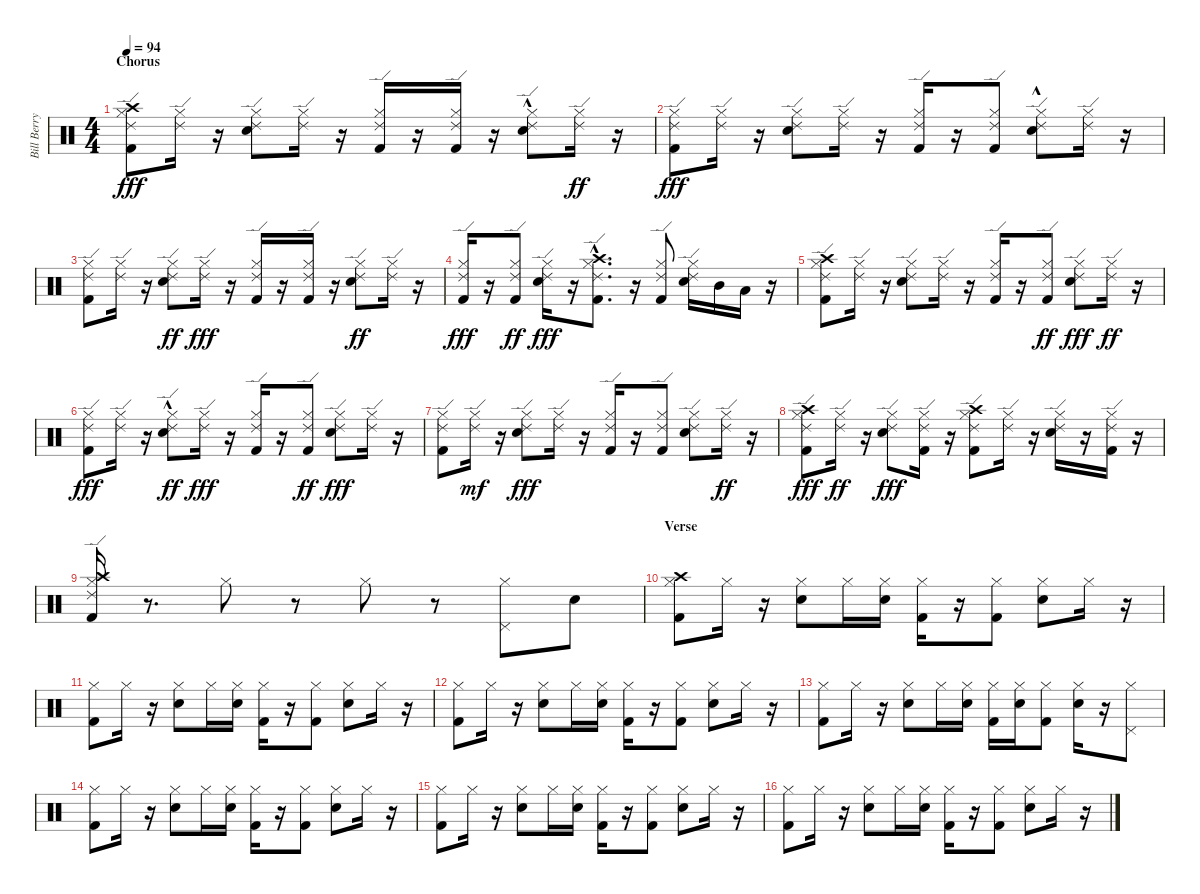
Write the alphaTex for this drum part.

\track ("Bill Berry (Drums)" "Bill Berry") {instrument percussion}
\staff {score}
\articulation defaults
\ts (4 4)
\section ("" "Chorus")
\tempo 94
\clef neutral
\ks c
("Kick (hit) 2" "Crash high (hit)" "Hi-Hat (closed)" "Ride (edge) 2").8{dy fff} ("Hi-Hat (closed)" "Ride (edge) 2").16 r.16 ("Electric Snare (hit)" "Ride (edge) 2" "Hi-Hat (closed)").8 ("Hi-Hat (closed)" "Ride (edge) 2").16 r.16 ("Kick (hit) 2" "Ride (edge) 2" "Hi-Hat (closed)").16 r.16 ("Kick (hit) 2" "Ride (edge) 2" "Hi-Hat (closed)").16 r.16 ("Electric Snare (hit)"{hac} "Ride (edge) 2" "Hi-Hat (closed)").8 ("Hi-Hat (closed)" "Ride (edge) 2").16{dy ff} r.16 |
("Kick (hit) 2" "Hi-Hat (closed)" "Ride (edge) 2").8{dy fff} ("Ride (edge) 2" "Hi-Hat (closed)").16 r.16 ("Electric Snare (hit)" "Ride (edge) 2" "Hi-Hat (closed)").8 ("Hi-Hat (closed)" "Ride (edge) 2").16 r.16 ("Kick (hit) 2" "Ride (edge) 2" "Hi-Hat (closed)").16 r.16 ("Ride (edge) 2" "Kick (hit) 2" "Hi-Hat (closed)").8 ("Hi-Hat (closed)" "Ride (edge) 2" "Electric Snare (hit)"{hac}).8 ("Hi-Hat (closed)" "Ride (edge) 2").16 r.16 |
("Ride (edge) 2" "Kick (hit) 2" "Hi-Hat (closed)").8 ("Hi-Hat (closed)" "Ride (edge) 2").16 r.16 ("Ride (edge) 2" "Electric Snare (hit)" "Hi-Hat (closed)").8{dy ff} ("Ride (edge) 2" "Hi-Hat (closed)").16{dy fff} r.16 ("Kick (hit) 2" "Ride (edge) 2" "Hi-Hat (closed)").16 r.16 ("Kick (hit) 2" "Ride (edge) 2" "Hi-Hat (closed)").16 r.16 ("Electric Snare (hit)" "Ride (edge) 2" "Hi-Hat (closed)").8{dy ff} ("Ride (edge) 2" "Hi-Hat (closed)").16 r.16 |
("Kick (hit) 2" "Ride (edge) 2" "Hi-Hat (closed)").16{dy fff} r.16 ("Kick (hit) 2" "Hi-Hat (closed)" "Ride (edge) 2").8{dy ff} ("Electric Snare (hit)" "Ride (edge) 2" "Hi-Hat (closed)").16{dy fff} r.16 ("Kick (hit) 2"{hac} "Ride (edge) 2" "Hi-Hat (closed)" "Crash high (hit)").8{d} r.16 ("Kick (hit) 2" "Ride (edge) 2" "Hi-Hat (closed)").8 ("Electric Snare (hit)" "Hi-Hat (closed)" "Ride (edge) 2").16 "Mid Tom (hit)".16 "Low Tom (hit)".16 r.16 |
("Kick (hit) 2" "Hi-Hat (closed)" "Ride (edge) 2" "Crash high (hit)").8 ("Ride (edge) 2" "Hi-Hat (closed)").16 r.16 ("Electric Snare (hit)" "Ride (edge) 2" "Hi-Hat (closed)").8 ("Ride (edge) 2" "Hi-Hat (closed)").16 r.16 ("Kick (hit) 2" "Ride (edge) 2" "Hi-Hat (closed)").16 r.16 ("Kick (hit) 2" "Hi-Hat (closed)" "Ride (edge) 2").8{dy ff} ("Electric Snare (hit)" "Ride (edge) 2" "Hi-Hat (closed)").8{dy fff} ("Hi-Hat (closed)" "Ride (edge) 2").16{dy ff} r.16 |
("Kick (hit) 2" "Ride (edge) 2" "Hi-Hat (closed)").8{dy fff} ("Ride (edge) 2" "Hi-Hat (closed)").16 r.16 ("Electric Snare (hit)"{hac} "Hi-Hat (closed)" "Ride (edge) 2").8{dy ff} ("Ride (edge) 2" "Hi-Hat (closed)").16{dy fff} r.16 ("Kick (hit) 2" "Ride (edge) 2" "Hi-Hat (closed)").16 r.16 ("Kick (hit) 2" "Hi-Hat (closed)" "Ride (edge) 2").8{dy ff} ("Electric Snare (hit)" "Ride (edge) 2" "Hi-Hat (closed)").8{dy fff} ("Ride (edge) 2" "Hi-Hat (closed)").16 r.16 |
("Kick (hit) 2" "Ride (edge) 2" "Hi-Hat (closed)").8 ("Hi-Hat (closed)" "Ride (edge) 2").16{dy mf} r.16 ("Electric Snare (hit)" "Ride (edge) 2" "Hi-Hat (closed)").8{dy fff} ("Ride (edge) 2" "Hi-Hat (closed)").16 r.16 ("Kick (hit) 2" "Ride (edge) 2" "Hi-Hat (closed)").16 r.16 ("Ride (edge) 2" "Kick (hit) 2" "Hi-Hat (closed)").8 ("Hi-Hat (closed)" "Ride (edge) 2" "Electric Snare (hit)").8 ("Hi-Hat (closed)" "Ride (edge) 2").16{dy ff} r.16 |
("Ride (edge) 2" "Kick (hit) 2" "Hi-Hat (closed)" "Crash high (hit)").8{dy fff} ("Ride (edge) 2" "Hi-Hat (closed)").16{dy ff} r.16 ("Ride (edge) 2" "Electric Snare (hit)" "Hi-Hat (closed)").8{dy fff} ("Kick (hit) 2" "Hi-Hat (closed)" "Ride (edge) 2").16 r.16 ("Kick (hit) 2" "Hi-Hat (closed)" "Ride (edge) 2" "Crash high (hit)").8 ("Hi-Hat (closed)" "Ride (edge) 2").16 r.16 ("Electric Snare (hit)" "Ride (edge) 2" "Hi-Hat (closed)").16 r.16 ("Kick (hit) 2" "Hi-Hat (closed)" "Ride (edge) 2").16 r.16 |
("Crash high (hit)" "Kick (hit) 2" "Ride (edge) 2" "Hi-Hat (closed)").16 r.8{d} "Hi-Hat (closed)".8 r.8 "Hi-Hat (closed)".8 r.8 ("Hi-Hat (closed)" "Pedal Hi-Hat (hit)").8 "Electric Snare (hit)".8 |
\section ("" "Verse")
("Kick (hit) 2" "Hi-Hat (closed)" "Crash high (hit)").8 "Hi-Hat (closed)".16 r.16 ("Electric Snare (hit)" "Hi-Hat (closed)").8 "Hi-Hat (closed)".16 ("Electric Snare (hit)" "Hi-Hat (closed)").16 ("Hi-Hat (closed)" "Kick (hit) 2").16 r.16 ("Kick (hit) 2" "Hi-Hat (closed)").8 ("Hi-Hat (closed)" "Electric Snare (hit)").8 "Hi-Hat (closed)".16 r.16 |
("Hi-Hat (closed)" "Kick (hit) 2").8 "Hi-Hat (closed)".16 r.16 ("Hi-Hat (closed)" "Electric Snare (hit)").8 "Hi-Hat (closed)".16 ("Electric Snare (hit)" "Hi-Hat (closed)").16 ("Hi-Hat (closed)" "Kick (hit) 2").16 r.16 ("Hi-Hat (closed)" "Kick (hit) 2").8 ("Hi-Hat (closed)" "Electric Snare (hit)").8 "Hi-Hat (closed)".16 r.16 |
("Hi-Hat (closed)" "Kick (hit) 2").8 "Hi-Hat (closed)".16 r.16 ("Hi-Hat (closed)" "Electric Snare (hit)").8 "Hi-Hat (closed)".16 ("Electric Snare (hit)" "Hi-Hat (closed)").16 ("Hi-Hat (closed)" "Kick (hit) 2").16 r.16 ("Hi-Hat (closed)" "Kick (hit) 2").8 ("Electric Snare (hit)" "Hi-Hat (closed)").8 "Hi-Hat (closed)".16 r.16 |
("Kick (hit) 2" "Hi-Hat (closed)").8 "Hi-Hat (closed)".16 r.16 ("Electric Snare (hit)" "Hi-Hat (closed)").8 "Hi-Hat (closed)".16 ("Electric Snare (hit)" "Hi-Hat (closed)").16 ("Kick (hit) 2" "Hi-Hat (closed)").16 ("Electric Snare (hit)" "Hi-Hat (closed)").16 ("Hi-Hat (closed)" "Kick (hit) 2").8 ("Electric Snare (hit)" "Hi-Hat (closed)").16 r.16 ("Pedal Hi-Hat (hit)" "Hi-Hat (closed)").8 |
("Kick (hit) 2" "Hi-Hat (closed)").8 "Hi-Hat (closed)".16 r.16 ("Electric Snare (hit)" "Hi-Hat (closed)").8 "Hi-Hat (closed)".16 ("Electric Snare (hit)" "Hi-Hat (closed)").16 ("Hi-Hat (closed)" "Kick (hit) 2").16 r.16 ("Kick (hit) 2" "Hi-Hat (closed)").8 ("Electric Snare (hit)" "Hi-Hat (closed)").8 "Hi-Hat (closed)".16 r.16 |
("Kick (hit) 2" "Hi-Hat (closed)").8 "Hi-Hat (closed)".16 r.16 ("Hi-Hat (closed)" "Electric Snare (hit)").8 "Hi-Hat (closed)".16 ("Electric Snare (hit)" "Hi-Hat (closed)").16 ("Hi-Hat (closed)" "Kick (hit) 2").16 r.16 ("Hi-Hat (closed)" "Kick (hit) 2").8 ("Electric Snare (hit)" "Hi-Hat (closed)").8 "Hi-Hat (closed)".16 r.16 |
("Hi-Hat (closed)" "Kick (hit) 2").8 "Hi-Hat (closed)".16 r.16 ("Hi-Hat (closed)" "Electric Snare (hit)").8 "Hi-Hat (closed)".16 ("Electric Snare (hit)" "Hi-Hat (closed)").16 ("Hi-Hat (closed)" "Kick (hit) 2").16 r.16 ("Hi-Hat (closed)" "Kick (hit) 2").8 ("Electric Snare (hit)" "Hi-Hat (closed)").8 "Hi-Hat (closed)".16 r.16
